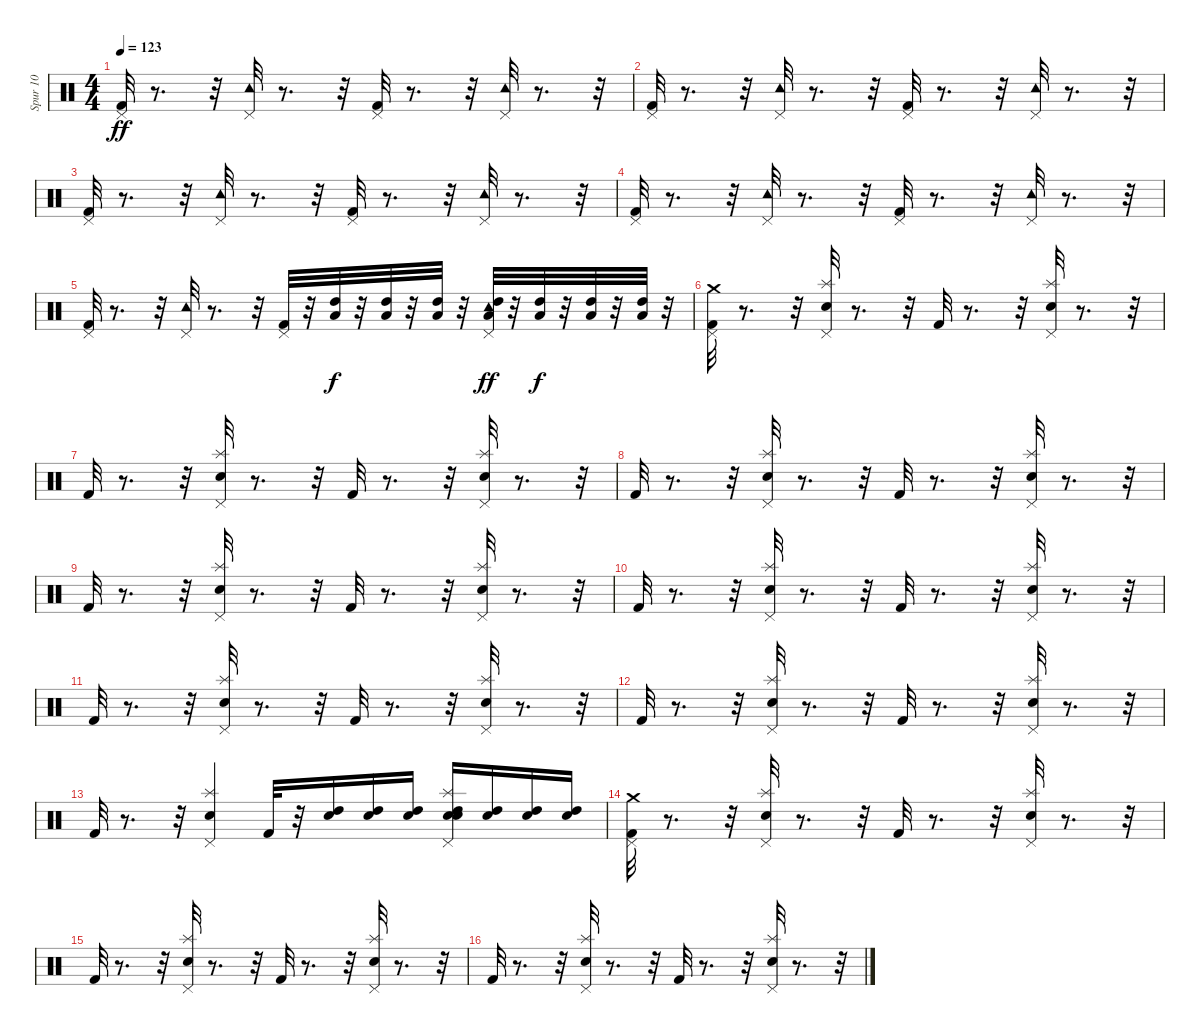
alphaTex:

\track ("Spur 10" "Spur 10") {instrument percussion}
\staff {score}
\articulation defaults
\ts (4 4)
\tempo 123
\clef neutral
\ks c
("Kick (hit) 2" "Pedal Hi-Hat (hit)").32{dy ff} r.8{d} r.32 ("Tambourine (hit)" "Pedal Hi-Hat (hit)").32 r.8{d} r.32 ("Kick (hit) 2" "Pedal Hi-Hat (hit)").32 r.8{d} r.32 ("Tambourine (hit)" "Pedal Hi-Hat (hit)").32 r.8{d} r.32 |
("Kick (hit) 2" "Pedal Hi-Hat (hit)").32 r.8{d} r.32 ("Tambourine (hit)" "Pedal Hi-Hat (hit)").32 r.8{d} r.32 ("Kick (hit) 2" "Pedal Hi-Hat (hit)").32 r.8{d} r.32 ("Tambourine (hit)" "Pedal Hi-Hat (hit)").32 r.8{d} r.32 |
("Kick (hit) 2" "Pedal Hi-Hat (hit)").32 r.8{d} r.32 ("Tambourine (hit)" "Pedal Hi-Hat (hit)").32 r.8{d} r.32 ("Kick (hit) 2" "Pedal Hi-Hat (hit)").32 r.8{d} r.32 ("Tambourine (hit)" "Pedal Hi-Hat (hit)").32 r.8{d} r.32 |
("Kick (hit) 2" "Pedal Hi-Hat (hit)").32 r.8{d} r.32 ("Tambourine (hit)" "Pedal Hi-Hat (hit)").32 r.8{d} r.32 ("Kick (hit) 2" "Pedal Hi-Hat (hit)").32 r.8{d} r.32 ("Tambourine (hit)" "Pedal Hi-Hat (hit)").32 r.8{d} r.32 |
("Kick (hit) 2" "Pedal Hi-Hat (hit)").32 r.8{d} r.32 ("Tambourine (hit)" "Pedal Hi-Hat (hit)").32 r.8{d} r.32 ("Kick (hit) 2" "Pedal Hi-Hat (hit)").32 r.32 ("High Tom (hit)" "Low Floor Tom (hit)").32{dy f} r.32 ("High Tom (hit)" "Low Floor Tom (hit)").32 r.32 ("High Tom (hit)" "Low Floor Tom (hit)").32 r.32 ("High Tom (hit)" "Low Floor Tom (hit)" "Tambourine (hit)" "Pedal Hi-Hat (hit)").32{dy ff} r.32 ("High Tom (hit)" "Low Floor Tom (hit)").32{dy f} r.32 ("High Tom (hit)" "Low Floor Tom (hit)").32 r.32 ("High Tom (hit)" "Low Floor Tom (hit)").32 r.32 |
("Kick (hit) 2" "Crash medium (hit)" "Pedal Hi-Hat (hit)").32 r.8{d} r.32 ("Splash (hit)" "Pedal Hi-Hat (hit)" "Snare (hit) 2").32 r.8{d} r.32 "Kick (hit) 2".32 r.8{d} r.32 ("Snare (hit) 2" "Pedal Hi-Hat (hit)" "Splash (hit)").32 r.8{d} r.32 |
"Kick (hit) 2".32 r.8{d} r.32 ("Snare (hit) 2" "Pedal Hi-Hat (hit)" "Splash (hit)").32 r.8{d} r.32 "Kick (hit) 2".32 r.8{d} r.32 ("Snare (hit) 2" "Pedal Hi-Hat (hit)" "Splash (hit)").32 r.8{d} r.32 |
"Kick (hit) 2".32 r.8{d} r.32 ("Snare (hit) 2" "Pedal Hi-Hat (hit)" "Splash (hit)").32 r.8{d} r.32 "Kick (hit) 2".32 r.8{d} r.32 ("Snare (hit) 2" "Pedal Hi-Hat (hit)" "Splash (hit)").32 r.8{d} r.32 |
"Kick (hit) 2".32 r.8{d} r.32 ("Snare (hit) 2" "Pedal Hi-Hat (hit)" "Splash (hit)").32 r.8{d} r.32 "Kick (hit) 2".32 r.8{d} r.32 ("Snare (hit) 2" "Pedal Hi-Hat (hit)" "Splash (hit)").32 r.8{d} r.32 |
"Kick (hit) 2".32 r.8{d} r.32 ("Snare (hit) 2" "Pedal Hi-Hat (hit)" "Splash (hit)").32 r.8{d} r.32 "Kick (hit) 2".32 r.8{d} r.32 ("Snare (hit) 2" "Pedal Hi-Hat (hit)" "Splash (hit)").32 r.8{d} r.32 |
"Kick (hit) 2".32 r.8{d} r.32 ("Snare (hit) 2" "Pedal Hi-Hat (hit)" "Splash (hit)").32 r.8{d} r.32 "Kick (hit) 2".32 r.8{d} r.32 ("Snare (hit) 2" "Pedal Hi-Hat (hit)" "Splash (hit)").32 r.8{d} r.32 |
"Kick (hit) 2".32 r.8{d} r.32 ("Snare (hit) 2" "Pedal Hi-Hat (hit)" "Splash (hit)").32 r.8{d} r.32 "Kick (hit) 2".32 r.8{d} r.32 ("Snare (hit) 2" "Pedal Hi-Hat (hit)" "Splash (hit)").32 r.8{d} r.32 |
"Kick (hit) 2".32 r.8{d} r.32 ("Snare (hit) 2" "Pedal Hi-Hat (hit)" "Splash (hit)").4 "Kick (hit) 2".32 r.32 ("Snare (hit) 2" "High Tom (hit)").16 ("Snare (hit) 2" "High Tom (hit)").16 ("Snare (hit) 2" "High Tom (hit)").16 ("High Tom (hit)" "Snare (hit) 2" "Snare (hit) 2" "Pedal Hi-Hat (hit)" "Splash (hit)").16 ("High Tom (hit)" "Snare (hit) 2").16 ("High Tom (hit)" "Snare (hit) 2").16 ("High Tom (hit)" "Snare (hit) 2").16 |
("Kick (hit) 2" "Crash medium (hit)" "Pedal Hi-Hat (hit)").32 r.8{d} r.32 ("Splash (hit)" "Pedal Hi-Hat (hit)" "Snare (hit) 2").32 r.8{d} r.32 "Kick (hit) 2".32 r.8{d} r.32 ("Snare (hit) 2" "Pedal Hi-Hat (hit)" "Splash (hit)").32 r.8{d} r.32 |
"Kick (hit) 2".32 r.8{d} r.32 ("Snare (hit) 2" "Pedal Hi-Hat (hit)" "Splash (hit)").32 r.8{d} r.32 "Kick (hit) 2".32 r.8{d} r.32 ("Snare (hit) 2" "Pedal Hi-Hat (hit)" "Splash (hit)").32 r.8{d} r.32 |
"Kick (hit) 2".32 r.8{d} r.32 ("Snare (hit) 2" "Pedal Hi-Hat (hit)" "Splash (hit)").32 r.8{d} r.32 "Kick (hit) 2".32 r.8{d} r.32 ("Snare (hit) 2" "Pedal Hi-Hat (hit)" "Splash (hit)").32 r.8{d} r.32
